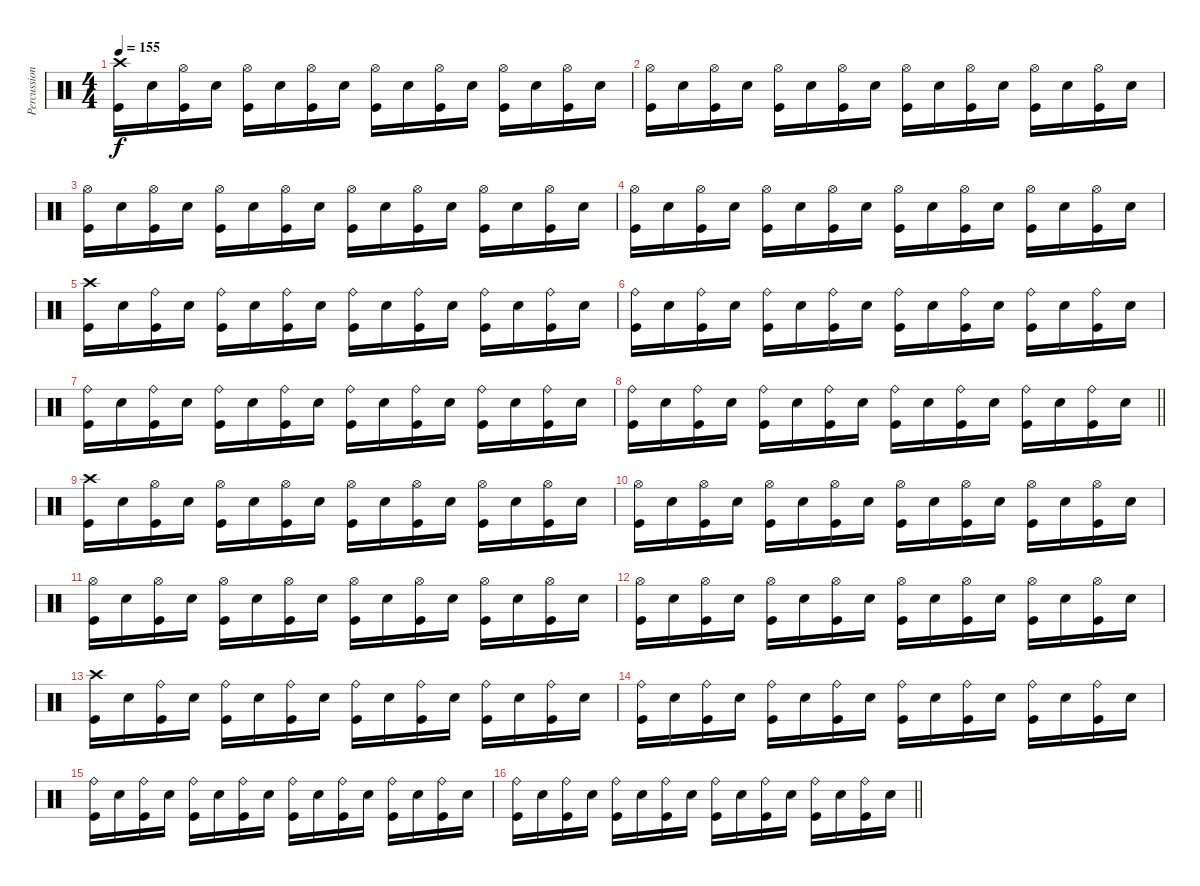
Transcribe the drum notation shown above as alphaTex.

\track ("Percussions" "Percussion") {instrument percussion}
\staff {score}
\articulation defaults
\ts (4 4)
\tempo 155
\clef neutral
\ks c
("Crash high (hit)" "Kick (hit)").16{dy f} "Electric Snare (hit)".16 ("Hi-Hat (open)" "Kick (hit)").16 "Electric Snare (hit)".16 ("Hi-Hat (open)" "Kick (hit)").16 "Electric Snare (hit)".16 ("Hi-Hat (open)" "Kick (hit)").16 "Electric Snare (hit)".16 ("Hi-Hat (open)" "Kick (hit)").16 "Electric Snare (hit)".16 ("Hi-Hat (open)" "Kick (hit)").16 "Electric Snare (hit)".16 ("Hi-Hat (open)" "Kick (hit)").16 "Electric Snare (hit)".16 ("Hi-Hat (open)" "Kick (hit)").16 "Electric Snare (hit)".16 |
("Hi-Hat (open)" "Kick (hit)").16 "Electric Snare (hit)".16 ("Hi-Hat (open)" "Kick (hit)").16 "Electric Snare (hit)".16 ("Hi-Hat (open)" "Kick (hit)").16 "Electric Snare (hit)".16 ("Hi-Hat (open)" "Kick (hit)").16 "Electric Snare (hit)".16 ("Hi-Hat (open)" "Kick (hit)").16 "Electric Snare (hit)".16 ("Hi-Hat (open)" "Kick (hit)").16 "Electric Snare (hit)".16 ("Hi-Hat (open)" "Kick (hit)").16 "Electric Snare (hit)".16 ("Hi-Hat (open)" "Kick (hit)").16 "Electric Snare (hit)".16 |
("Hi-Hat (open)" "Kick (hit)").16 "Electric Snare (hit)".16 ("Hi-Hat (open)" "Kick (hit)").16 "Electric Snare (hit)".16 ("Hi-Hat (open)" "Kick (hit)").16 "Electric Snare (hit)".16 ("Hi-Hat (open)" "Kick (hit)").16 "Electric Snare (hit)".16 ("Hi-Hat (open)" "Kick (hit)").16 "Electric Snare (hit)".16 ("Hi-Hat (open)" "Kick (hit)").16 "Electric Snare (hit)".16 ("Hi-Hat (open)" "Kick (hit)").16 "Electric Snare (hit)".16 ("Hi-Hat (open)" "Kick (hit)").16 "Electric Snare (hit)".16 |
("Hi-Hat (open)" "Kick (hit)").16 "Electric Snare (hit)".16 ("Hi-Hat (open)" "Kick (hit)").16 "Electric Snare (hit)".16 ("Hi-Hat (open)" "Kick (hit)").16 "Electric Snare (hit)".16 ("Hi-Hat (open)" "Kick (hit)").16 "Electric Snare (hit)".16 ("Hi-Hat (open)" "Kick (hit)").16 "Electric Snare (hit)".16 ("Hi-Hat (open)" "Kick (hit)").16 "Electric Snare (hit)".16 ("Hi-Hat (open)" "Kick (hit)").16 "Electric Snare (hit)".16 ("Hi-Hat (open)" "Kick (hit)").16 "Electric Snare (hit)".16 |
("Crash high (hit)" "Kick (hit)").16 "Electric Snare (hit)".16 ("Ride (bell)" "Kick (hit)").16 "Electric Snare (hit)".16 ("Ride (bell)" "Kick (hit)").16 "Electric Snare (hit)".16 ("Ride (bell)" "Kick (hit)").16 "Electric Snare (hit)".16 ("Ride (bell)" "Kick (hit)").16 "Electric Snare (hit)".16 ("Ride (bell)" "Kick (hit)").16 "Electric Snare (hit)".16 ("Ride (bell)" "Kick (hit)").16 "Electric Snare (hit)".16 ("Ride (bell)" "Kick (hit)").16 "Electric Snare (hit)".16 |
("Ride (bell)" "Kick (hit)").16 "Electric Snare (hit)".16 ("Ride (bell)" "Kick (hit)").16 "Electric Snare (hit)".16 ("Ride (bell)" "Kick (hit)").16 "Electric Snare (hit)".16 ("Ride (bell)" "Kick (hit)").16 "Electric Snare (hit)".16 ("Ride (bell)" "Kick (hit)").16 "Electric Snare (hit)".16 ("Ride (bell)" "Kick (hit)").16 "Electric Snare (hit)".16 ("Ride (bell)" "Kick (hit)").16 "Electric Snare (hit)".16 ("Ride (bell)" "Kick (hit)").16 "Electric Snare (hit)".16 |
("Ride (bell)" "Kick (hit)").16 "Electric Snare (hit)".16 ("Ride (bell)" "Kick (hit)").16 "Electric Snare (hit)".16 ("Ride (bell)" "Kick (hit)").16 "Electric Snare (hit)".16 ("Ride (bell)" "Kick (hit)").16 "Electric Snare (hit)".16 ("Ride (bell)" "Kick (hit)").16 "Electric Snare (hit)".16 ("Ride (bell)" "Kick (hit)").16 "Electric Snare (hit)".16 ("Ride (bell)" "Kick (hit)").16 "Electric Snare (hit)".16 ("Ride (bell)" "Kick (hit)").16 "Electric Snare (hit)".16 |
\barLineRight lightlight
("Ride (bell)" "Kick (hit)").16 "Electric Snare (hit)".16 ("Ride (bell)" "Kick (hit)").16 "Electric Snare (hit)".16 ("Ride (bell)" "Kick (hit)").16 "Electric Snare (hit)".16 ("Ride (bell)" "Kick (hit)").16 "Electric Snare (hit)".16 ("Ride (bell)" "Kick (hit)").16 "Electric Snare (hit)".16 ("Ride (bell)" "Kick (hit)").16 "Electric Snare (hit)".16 ("Ride (bell)" "Kick (hit)").16 "Electric Snare (hit)".16 ("Ride (bell)" "Kick (hit)").16 "Electric Snare (hit)".16 |
("Crash high (hit)" "Kick (hit)").16 "Electric Snare (hit)".16 ("Hi-Hat (open)" "Kick (hit)").16 "Electric Snare (hit)".16 ("Hi-Hat (open)" "Kick (hit)").16 "Electric Snare (hit)".16 ("Hi-Hat (open)" "Kick (hit)").16 "Electric Snare (hit)".16 ("Hi-Hat (open)" "Kick (hit)").16 "Electric Snare (hit)".16 ("Hi-Hat (open)" "Kick (hit)").16 "Electric Snare (hit)".16 ("Hi-Hat (open)" "Kick (hit)").16 "Electric Snare (hit)".16 ("Hi-Hat (open)" "Kick (hit)").16 "Electric Snare (hit)".16 |
("Hi-Hat (open)" "Kick (hit)").16 "Electric Snare (hit)".16 ("Hi-Hat (open)" "Kick (hit)").16 "Electric Snare (hit)".16 ("Hi-Hat (open)" "Kick (hit)").16 "Electric Snare (hit)".16 ("Hi-Hat (open)" "Kick (hit)").16 "Electric Snare (hit)".16 ("Hi-Hat (open)" "Kick (hit)").16 "Electric Snare (hit)".16 ("Hi-Hat (open)" "Kick (hit)").16 "Electric Snare (hit)".16 ("Hi-Hat (open)" "Kick (hit)").16 "Electric Snare (hit)".16 ("Hi-Hat (open)" "Kick (hit)").16 "Electric Snare (hit)".16 |
("Hi-Hat (open)" "Kick (hit)").16 "Electric Snare (hit)".16 ("Hi-Hat (open)" "Kick (hit)").16 "Electric Snare (hit)".16 ("Hi-Hat (open)" "Kick (hit)").16 "Electric Snare (hit)".16 ("Hi-Hat (open)" "Kick (hit)").16 "Electric Snare (hit)".16 ("Hi-Hat (open)" "Kick (hit)").16 "Electric Snare (hit)".16 ("Hi-Hat (open)" "Kick (hit)").16 "Electric Snare (hit)".16 ("Hi-Hat (open)" "Kick (hit)").16 "Electric Snare (hit)".16 ("Hi-Hat (open)" "Kick (hit)").16 "Electric Snare (hit)".16 |
("Hi-Hat (open)" "Kick (hit)").16 "Electric Snare (hit)".16 ("Hi-Hat (open)" "Kick (hit)").16 "Electric Snare (hit)".16 ("Hi-Hat (open)" "Kick (hit)").16 "Electric Snare (hit)".16 ("Hi-Hat (open)" "Kick (hit)").16 "Electric Snare (hit)".16 ("Hi-Hat (open)" "Kick (hit)").16 "Electric Snare (hit)".16 ("Hi-Hat (open)" "Kick (hit)").16 "Electric Snare (hit)".16 ("Hi-Hat (open)" "Kick (hit)").16 "Electric Snare (hit)".16 ("Hi-Hat (open)" "Kick (hit)").16 "Electric Snare (hit)".16 |
("Crash high (hit)" "Kick (hit)").16 "Electric Snare (hit)".16 ("Ride (bell)" "Kick (hit)").16 "Electric Snare (hit)".16 ("Ride (bell)" "Kick (hit)").16 "Electric Snare (hit)".16 ("Ride (bell)" "Kick (hit)").16 "Electric Snare (hit)".16 ("Ride (bell)" "Kick (hit)").16 "Electric Snare (hit)".16 ("Ride (bell)" "Kick (hit)").16 "Electric Snare (hit)".16 ("Ride (bell)" "Kick (hit)").16 "Electric Snare (hit)".16 ("Ride (bell)" "Kick (hit)").16 "Electric Snare (hit)".16 |
("Ride (bell)" "Kick (hit)").16 "Electric Snare (hit)".16 ("Ride (bell)" "Kick (hit)").16 "Electric Snare (hit)".16 ("Ride (bell)" "Kick (hit)").16 "Electric Snare (hit)".16 ("Ride (bell)" "Kick (hit)").16 "Electric Snare (hit)".16 ("Ride (bell)" "Kick (hit)").16 "Electric Snare (hit)".16 ("Ride (bell)" "Kick (hit)").16 "Electric Snare (hit)".16 ("Ride (bell)" "Kick (hit)").16 "Electric Snare (hit)".16 ("Ride (bell)" "Kick (hit)").16 "Electric Snare (hit)".16 |
("Ride (bell)" "Kick (hit)").16 "Electric Snare (hit)".16 ("Ride (bell)" "Kick (hit)").16 "Electric Snare (hit)".16 ("Ride (bell)" "Kick (hit)").16 "Electric Snare (hit)".16 ("Ride (bell)" "Kick (hit)").16 "Electric Snare (hit)".16 ("Ride (bell)" "Kick (hit)").16 "Electric Snare (hit)".16 ("Ride (bell)" "Kick (hit)").16 "Electric Snare (hit)".16 ("Ride (bell)" "Kick (hit)").16 "Electric Snare (hit)".16 ("Ride (bell)" "Kick (hit)").16 "Electric Snare (hit)".16 |
\barLineRight lightlight
("Ride (bell)" "Kick (hit)").16 "Electric Snare (hit)".16 ("Ride (bell)" "Kick (hit)").16 "Electric Snare (hit)".16 ("Ride (bell)" "Kick (hit)").16 "Electric Snare (hit)".16 ("Ride (bell)" "Kick (hit)").16 "Electric Snare (hit)".16 ("Ride (bell)" "Kick (hit)").16 "Electric Snare (hit)".16 ("Ride (bell)" "Kick (hit)").16 "Electric Snare (hit)".16 ("Ride (bell)" "Kick (hit)").16 "Electric Snare (hit)".16 ("Ride (bell)" "Kick (hit)").16 "Electric Snare (hit)".16
